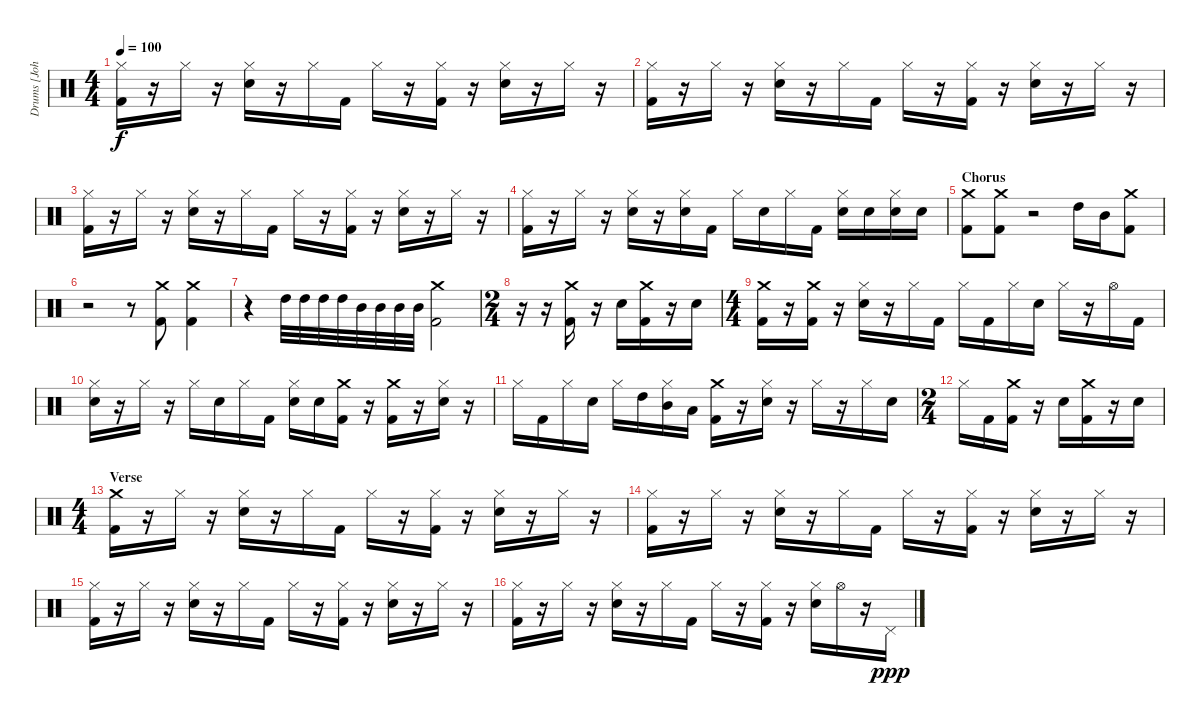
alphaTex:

\track ("Drums [John Otto]" "Drums [Joh") {instrument percussion}
\staff {score}
\articulation defaults
\ts (4 4)
\tempo 100
\clef neutral
\ks c
("Hi-Hat (closed)" "Kick (hit) 2").16{dy f} r.16 "Hi-Hat (closed)".16 r.16 ("Hi-Hat (closed)" "Electric Snare (hit)").16 r.16 "Hi-Hat (closed)".16 "Kick (hit) 2".16 "Hi-Hat (closed)".16 r.16 ("Hi-Hat (closed)" "Kick (hit) 2").16 r.16 ("Hi-Hat (closed)" "Electric Snare (hit)").16 r.16 "Hi-Hat (closed)".16 r.16 |
("Hi-Hat (closed)" "Kick (hit) 2").16 r.16 "Hi-Hat (closed)".16 r.16 ("Hi-Hat (closed)" "Electric Snare (hit)").16 r.16 "Hi-Hat (closed)".16 "Kick (hit) 2".16 "Hi-Hat (closed)".16 r.16 ("Hi-Hat (closed)" "Kick (hit) 2").16 r.16 ("Hi-Hat (closed)" "Electric Snare (hit)").16 r.16 "Hi-Hat (closed)".16 r.16 |
("Hi-Hat (closed)" "Kick (hit) 2").16 r.16 "Hi-Hat (closed)".16 r.16 ("Hi-Hat (closed)" "Electric Snare (hit)").16 r.16 "Hi-Hat (closed)".16 "Kick (hit) 2".16 "Hi-Hat (closed)".16 r.16 ("Hi-Hat (closed)" "Kick (hit) 2").16 r.16 ("Hi-Hat (closed)" "Electric Snare (hit)").16 r.16 "Hi-Hat (closed)".16 r.16 |
("Hi-Hat (closed)" "Kick (hit) 2").16 r.16 "Hi-Hat (closed)".16 r.16 ("Hi-Hat (closed)" "Electric Snare (hit)").16 r.16 ("Hi-Hat (closed)" "Electric Snare (hit)").16 "Kick (hit) 2".16 "Hi-Hat (closed)".16 "Electric Snare (hit)".16 "Hi-Hat (closed)".16 "Kick (hit) 2".16 ("Hi-Hat (closed)" "Electric Snare (hit)").16 "Electric Snare (hit)".16 ("Hi-Hat (closed)" "Electric Snare (hit)").16 "Electric Snare (hit)".16 |
\section ("" "Chorus")
("Crash medium (hit)" "Kick (hit) 2").8 ("Crash medium (hit)" "Kick (hit) 2").8 r.2 "High Tom (hit)".16 "Mid Tom (hit)".16 ("Crash medium (hit)" "Kick (hit) 2").8 |
r.2 r.8 ("Crash medium (hit)" "Kick (hit) 2").8 ("Crash medium (hit)" "Kick (hit) 2").4 |
r.4 "High Tom (hit)".32 "High Tom (hit)".32 "High Tom (hit)".32 "High Tom (hit)".32 "Mid Tom (hit)".32 "Mid Tom (hit)".32 "Mid Tom (hit)".32 "Mid Tom (hit)".32 ("Crash medium (hit)" "Kick (hit) 2").2 |
\ts (2 4)
r.16 r.16 ("Crash medium (hit)" "Kick (hit) 2").16 r.16 "Electric Snare (hit)".16 ("Crash medium (hit)" "Kick (hit) 2").16 r.16 "Electric Snare (hit)".16 |
\ts (4 4)
("Crash medium (hit)" "Kick (hit) 2").16 r.16 ("Crash medium (hit)" "Kick (hit) 2").16 r.16 ("Hi-Hat (closed)" "Electric Snare (hit)").16 r.16 "Hi-Hat (closed)".16 "Kick (hit) 2".16 "Hi-Hat (closed)".16 "Kick (hit) 2".16 "Hi-Hat (closed)".16 "Electric Snare (hit)".16 "Hi-Hat (closed)".16 r.16 "Hi-Hat (open)".16 "Kick (hit) 2".16 |
("Hi-Hat (closed)" "Electric Snare (hit)").16 r.16 "Hi-Hat (closed)".16 r.16 "Hi-Hat (closed)".16 "Electric Snare (hit)".16 "Hi-Hat (closed)".16 "Kick (hit) 2".16 ("Hi-Hat (closed)" "Electric Snare (hit)").16 "Electric Snare (hit)".16 ("Crash medium (hit)" "Kick (hit) 2").16 r.16 ("Crash medium (hit)" "Kick (hit) 2").16 r.16 ("Hi-Hat (closed)" "Electric Snare (hit)").16 r.16 |
"Hi-Hat (closed)".16 "Kick (hit) 2".16 "Hi-Hat (closed)".16 "Electric Snare (hit)".16 "Hi-Hat (closed)".16 "High Tom (hit)".16 ("Hi-Hat (closed)" "Mid Tom (hit)").16 "Low Tom (hit)".16 ("Crash medium (hit)" "Kick (hit) 2").16 r.16 ("Hi-Hat (closed)" "Electric Snare (hit)").16 r.16 "Hi-Hat (closed)".16 r.16 "Hi-Hat (closed)".16 "Electric Snare (hit)".16 |
\ts (2 4)
"Hi-Hat (closed)".16 "Kick (hit) 2".16 ("Crash medium (hit)" "Kick (hit) 2").16 r.16 "Electric Snare (hit)".16 ("Crash medium (hit)" "Kick (hit) 2").16 r.16 "Electric Snare (hit)".16 |
\ts (4 4)
\section ("" "Verse")
("Crash medium (hit)" "Kick (hit) 2").16 r.16 "Hi-Hat (closed)".16 r.16 ("Hi-Hat (closed)" "Electric Snare (hit)").16 r.16 "Hi-Hat (closed)".16 "Kick (hit) 2".16 "Hi-Hat (closed)".16 r.16 ("Hi-Hat (closed)" "Kick (hit) 2").16 r.16 ("Hi-Hat (closed)" "Electric Snare (hit)").16 r.16 "Hi-Hat (closed)".16 r.16 |
("Hi-Hat (closed)" "Kick (hit) 2").16 r.16 "Hi-Hat (closed)".16 r.16 ("Hi-Hat (closed)" "Electric Snare (hit)").16 r.16 "Hi-Hat (closed)".16 "Kick (hit) 2".16 "Hi-Hat (closed)".16 r.16 ("Hi-Hat (closed)" "Kick (hit) 2").16 r.16 ("Hi-Hat (closed)" "Electric Snare (hit)").16 r.16 "Hi-Hat (closed)".16 r.16 |
("Hi-Hat (closed)" "Kick (hit) 2").16 r.16 "Hi-Hat (closed)".16 r.16 ("Hi-Hat (closed)" "Electric Snare (hit)").16 r.16 "Hi-Hat (closed)".16 "Kick (hit) 2".16 "Hi-Hat (closed)".16 r.16 ("Hi-Hat (closed)" "Kick (hit) 2").16 r.16 ("Hi-Hat (closed)" "Electric Snare (hit)").16 r.16 "Hi-Hat (closed)".16 r.16 |
("Hi-Hat (closed)" "Kick (hit) 2").16 r.16 "Hi-Hat (closed)".16 r.16 ("Hi-Hat (closed)" "Electric Snare (hit)").16 r.16 "Hi-Hat (closed)".16 "Kick (hit) 2".16 "Hi-Hat (closed)".16 r.16 ("Hi-Hat (closed)" "Kick (hit) 2").16 r.16 ("Hi-Hat (closed)" "Electric Snare (hit)").16 "Hi-Hat (open)".16 r.16 "Pedal Hi-Hat (hit)".16{dy ppp}
